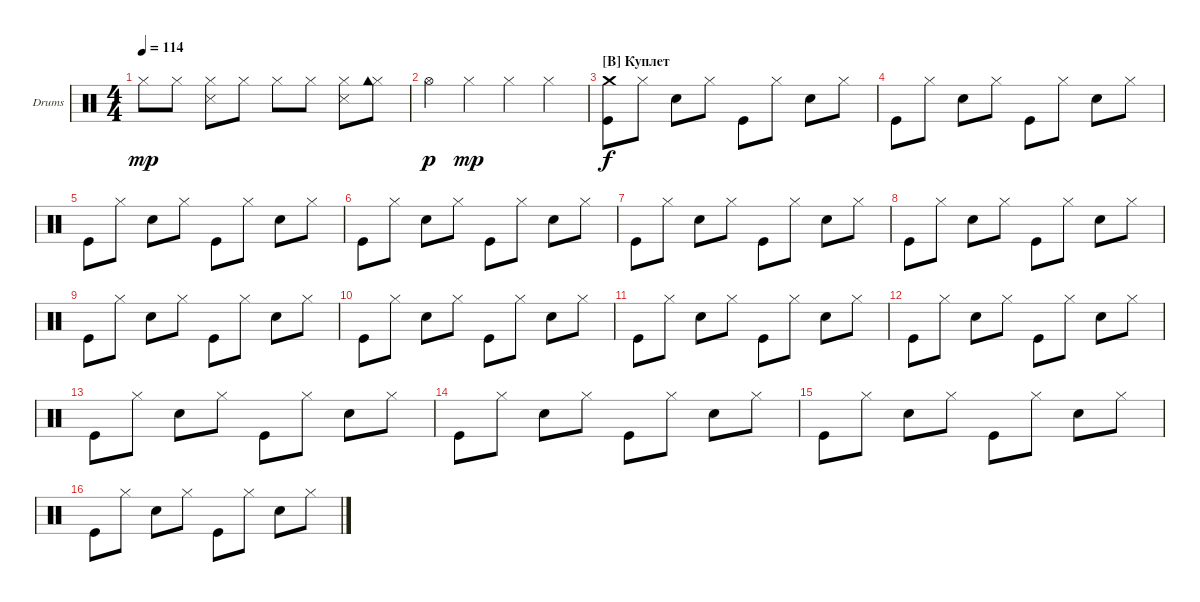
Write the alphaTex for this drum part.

\defaultSystemsLayout 4
\bracketExtendMode groupsimilarinstruments
\firstSystemTrackNameOrientation horizontal
\otherSystemsTrackNameOrientation horizontal
\track ("Е. Кулаков" "Drums") {instrument percussion}
\staff {score}
\articulation defaults
\ts (4 4)
\tempo 114
\clef neutral
\ks c "Hi-Hat (closed)".8{dy mp} "Hi-Hat (closed)".8
("Hi-Hat (closed)" "Snare (side stick) 3").8 "Hi-Hat (closed)".8 "Hi-Hat (closed)".8 "Hi-Hat (closed)".8 ("Hi-Hat (closed)" "Snare (side stick) 3").8 ("Hi-Hat (closed)" "Cowbell high (hit)").8 |
"Hi-Hat (open)".4{dy p} "Hi-Hat (closed)".4{dy mp} "Hi-Hat (closed)".4 "Hi-Hat (closed)".4 |
\section ("B" "Куплет")
("Kick (hit)" "Crash medium (hit)").8{dy f} "Hi-Hat (closed)".8 "Snare (hit) 2".8 "Hi-Hat (closed)".8 "Kick (hit)".8 "Hi-Hat (closed)".8 "Snare (hit) 2".8 "Hi-Hat (closed)".8 |
"Kick (hit)".8 "Hi-Hat (closed)".8 "Snare (hit) 2".8 "Hi-Hat (closed)".8 "Kick (hit)".8 "Hi-Hat (closed)".8 "Snare (hit) 2".8 "Hi-Hat (closed)".8 |
"Kick (hit)".8 "Hi-Hat (closed)".8 "Snare (hit) 2".8 "Hi-Hat (closed)".8 "Kick (hit)".8 "Hi-Hat (closed)".8 "Snare (hit) 2".8 "Hi-Hat (closed)".8 |
"Kick (hit)".8 "Hi-Hat (closed)".8 "Snare (hit) 2".8 "Hi-Hat (closed)".8 "Kick (hit)".8 "Hi-Hat (closed)".8 "Snare (hit) 2".8 "Hi-Hat (closed)".8 |
"Kick (hit)".8 "Hi-Hat (closed)".8 "Snare (hit) 2".8 "Hi-Hat (closed)".8 "Kick (hit)".8 "Hi-Hat (closed)".8 "Snare (hit) 2".8 "Hi-Hat (closed)".8 |
"Kick (hit)".8 "Hi-Hat (closed)".8 "Snare (hit) 2".8 "Hi-Hat (closed)".8 "Kick (hit)".8 "Hi-Hat (closed)".8 "Snare (hit) 2".8 "Hi-Hat (closed)".8 |
"Kick (hit)".8 "Hi-Hat (closed)".8 "Snare (hit) 2".8 "Hi-Hat (closed)".8 "Kick (hit)".8 "Hi-Hat (closed)".8 "Snare (hit) 2".8 "Hi-Hat (closed)".8 |
"Kick (hit)".8 "Hi-Hat (closed)".8 "Snare (hit) 2".8 "Hi-Hat (closed)".8 "Kick (hit)".8 "Hi-Hat (closed)".8 "Snare (hit) 2".8 "Hi-Hat (closed)".8 |
"Kick (hit)".8 "Hi-Hat (closed)".8 "Snare (hit) 2".8 "Hi-Hat (closed)".8 "Kick (hit)".8 "Hi-Hat (closed)".8 "Snare (hit) 2".8 "Hi-Hat (closed)".8 |
"Kick (hit)".8 "Hi-Hat (closed)".8 "Snare (hit) 2".8 "Hi-Hat (closed)".8 "Kick (hit)".8 "Hi-Hat (closed)".8 "Snare (hit) 2".8 "Hi-Hat (closed)".8 |
"Kick (hit)".8 "Hi-Hat (closed)".8 "Snare (hit) 2".8 "Hi-Hat (closed)".8 "Kick (hit)".8 "Hi-Hat (closed)".8 "Snare (hit) 2".8 "Hi-Hat (closed)".8 |
"Kick (hit)".8 "Hi-Hat (closed)".8 "Snare (hit) 2".8 "Hi-Hat (closed)".8 "Kick (hit)".8 "Hi-Hat (closed)".8 "Snare (hit) 2".8 "Hi-Hat (closed)".8 |
"Kick (hit)".8 "Hi-Hat (closed)".8 "Snare (hit) 2".8 "Hi-Hat (closed)".8 "Kick (hit)".8 "Hi-Hat (closed)".8 "Snare (hit) 2".8 "Hi-Hat (closed)".8 |
"Kick (hit)".8 "Hi-Hat (closed)".8 "Snare (hit) 2".8 "Hi-Hat (closed)".8 "Kick (hit)".8 "Hi-Hat (closed)".8 "Snare (hit) 2".8 "Hi-Hat (closed)".8
